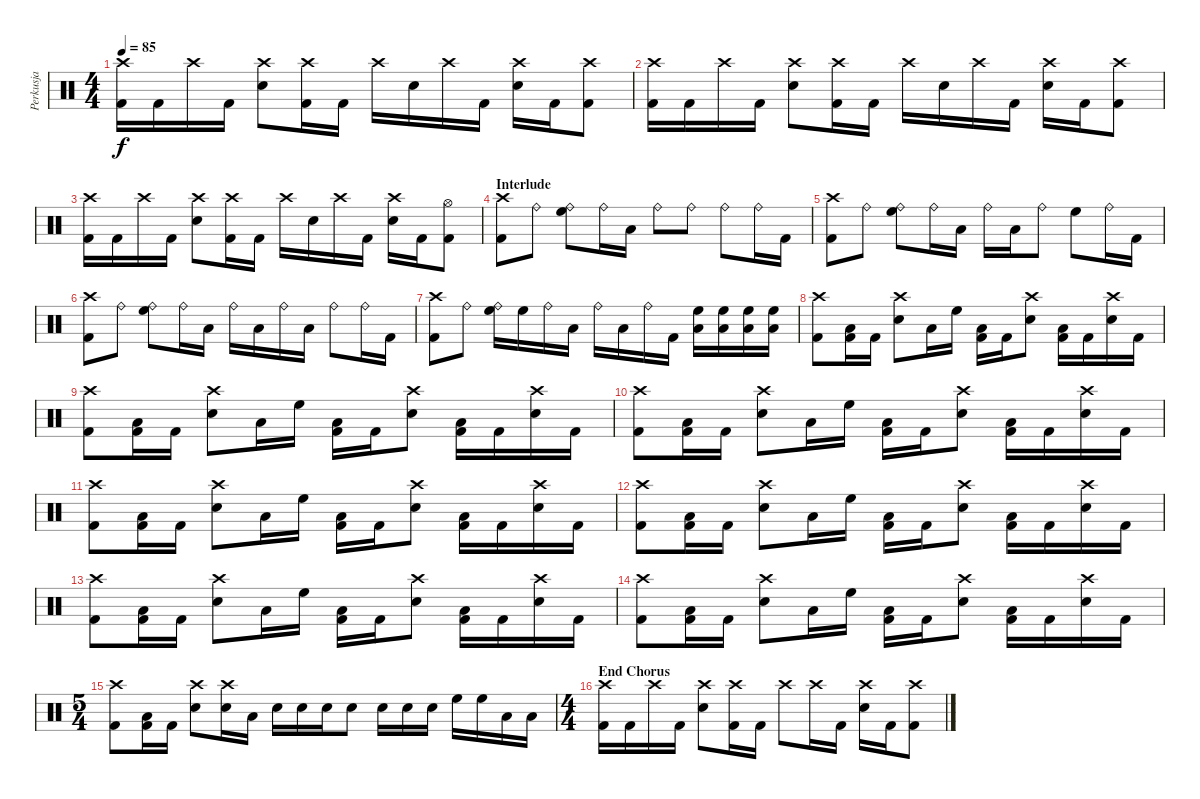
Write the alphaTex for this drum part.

\track ("Perkusja" "Perkusja") {instrument percussion}
\staff {score}
\articulation defaults
\ts (4 4)
\tempo 85
\clef neutral
\ks c
("Crash high (hit)" "Kick (hit) 2").16{dy f} "Kick (hit) 2".16 "Crash high (hit)".16 "Kick (hit) 2".16 ("Crash high (hit)" "Snare (hit) 2").8 ("Crash high (hit)" "Kick (hit) 2").16 "Kick (hit) 2".16 "Crash high (hit)".16 "Snare (hit) 2".16 "Crash high (hit)".16 "Kick (hit) 2".16 ("Crash high (hit)" "Snare (hit) 2").16 "Kick (hit) 2".16 ("Crash high (hit)" "Kick (hit) 2").8 |
("Crash high (hit)" "Kick (hit) 2").16 "Kick (hit) 2".16 "Crash high (hit)".16 "Kick (hit) 2".16 ("Crash high (hit)" "Snare (hit) 2").8 ("Crash high (hit)" "Kick (hit) 2").16 "Kick (hit) 2".16 "Crash high (hit)".16 "Snare (hit) 2".16 "Crash high (hit)".16 "Kick (hit) 2".16 ("Crash high (hit)" "Snare (hit) 2").16 "Kick (hit) 2".16 ("Crash high (hit)" "Kick (hit) 2").8 |
("Crash high (hit)" "Kick (hit) 2").16 "Kick (hit) 2".16 "Crash high (hit)".16 "Kick (hit) 2".16 ("Crash high (hit)" "Snare (hit) 2").8 ("Crash high (hit)" "Kick (hit) 2").16 "Kick (hit) 2".16 "Crash high (hit)".16 "Snare (hit) 2".16 "Crash high (hit)".16 "Kick (hit) 2".16 ("Crash high (hit)" "Snare (hit) 2").16 "Kick (hit) 2".16 ("Hi-Hat (open)" "Kick (hit) 2").8 |
\section ("" "Interlude")
("Crash high (hit)" "Kick (hit) 2").8 "Ride (bell)".8 ("Ride (bell)" "High Floor Tom (hit)").8 "Ride (bell)".16 "Low Floor Tom (hit)".16 "Ride (bell)".8 "Ride (bell)".8 "Ride (bell)".8 "Ride (bell)".16 "Kick (hit) 2".16 |
("Crash high (hit)" "Kick (hit) 2").8 "Ride (bell)".8 ("Ride (bell)" "High Floor Tom (hit)").8 "Ride (bell)".16 "Low Floor Tom (hit)".16 "Ride (bell)".16 "Low Floor Tom (hit)".16 "Ride (bell)".8 "High Floor Tom (hit)".8 "Ride (bell)".16 "Kick (hit) 2".16 |
("Crash high (hit)" "Kick (hit) 2").8 "Ride (bell)".8 ("Ride (bell)" "High Floor Tom (hit)").8 "Ride (bell)".16 "Low Floor Tom (hit)".16 "Ride (bell)".16 "Low Floor Tom (hit)".16 "Ride (bell)".16 "Low Floor Tom (hit)".16 "Ride (bell)".8 "Ride (bell)".16 "Kick (hit) 2".16 |
("Crash high (hit)" "Kick (hit) 2").8 "Ride (bell)".8 ("Ride (bell)" "High Floor Tom (hit)").16 "High Floor Tom (hit)".16 "Ride (bell)".16 "Low Floor Tom (hit)".16 "Ride (bell)".16 "Low Floor Tom (hit)".16 "Ride (bell)".16 "Kick (hit) 2".16 ("High Floor Tom (hit)" "Low Floor Tom (hit)").16 ("High Floor Tom (hit)" "Low Floor Tom (hit)").16 ("High Floor Tom (hit)" "Low Floor Tom (hit)").16 ("High Floor Tom (hit)" "Low Floor Tom (hit)").16 |
("Crash high (hit)" "Kick (hit) 2").8 ("Low Floor Tom (hit)" "Kick (hit) 2").16 "Kick (hit) 2".16 ("Crash high (hit)" "Snare (hit) 2").8 "Low Floor Tom (hit)".16 "High Floor Tom (hit)".16 ("Low Floor Tom (hit)" "Kick (hit) 2").16 "Kick (hit) 2".16 ("Crash high (hit)" "Snare (hit) 2").8 ("Low Floor Tom (hit)" "Kick (hit) 2").16 "Kick (hit) 2".16 ("Crash high (hit)" "Snare (hit) 2").16 "Kick (hit) 2".16 |
("Crash high (hit)" "Kick (hit) 2").8 ("Low Floor Tom (hit)" "Kick (hit) 2").16 "Kick (hit) 2".16 ("Crash high (hit)" "Snare (hit) 2").8 "Low Floor Tom (hit)".16 "High Floor Tom (hit)".16 ("Low Floor Tom (hit)" "Kick (hit) 2").16 "Kick (hit) 2".16 ("Crash high (hit)" "Snare (hit) 2").8 ("Low Floor Tom (hit)" "Kick (hit) 2").16 "Kick (hit) 2".16 ("Crash high (hit)" "Snare (hit) 2").16 "Kick (hit) 2".16 |
("Crash high (hit)" "Kick (hit) 2").8 ("Low Floor Tom (hit)" "Kick (hit) 2").16 "Kick (hit) 2".16 ("Crash high (hit)" "Snare (hit) 2").8 "Low Floor Tom (hit)".16 "High Floor Tom (hit)".16 ("Low Floor Tom (hit)" "Kick (hit) 2").16 "Kick (hit) 2".16 ("Crash high (hit)" "Snare (hit) 2").8 ("Low Floor Tom (hit)" "Kick (hit) 2").16 "Kick (hit) 2".16 ("Crash high (hit)" "Snare (hit) 2").16 "Kick (hit) 2".16 |
("Crash high (hit)" "Kick (hit) 2").8 ("Low Floor Tom (hit)" "Kick (hit) 2").16 "Kick (hit) 2".16 ("Crash high (hit)" "Snare (hit) 2").8 "Low Floor Tom (hit)".16 "High Floor Tom (hit)".16 ("Low Floor Tom (hit)" "Kick (hit) 2").16 "Kick (hit) 2".16 ("Crash high (hit)" "Snare (hit) 2").8 ("Low Floor Tom (hit)" "Kick (hit) 2").16 "Kick (hit) 2".16 ("Crash high (hit)" "Snare (hit) 2").16 "Kick (hit) 2".16 |
("Crash high (hit)" "Kick (hit) 2").8 ("Low Floor Tom (hit)" "Kick (hit) 2").16 "Kick (hit) 2".16 ("Crash high (hit)" "Snare (hit) 2").8 "Low Floor Tom (hit)".16 "High Floor Tom (hit)".16 ("Low Floor Tom (hit)" "Kick (hit) 2").16 "Kick (hit) 2".16 ("Crash high (hit)" "Snare (hit) 2").8 ("Low Floor Tom (hit)" "Kick (hit) 2").16 "Kick (hit) 2".16 ("Crash high (hit)" "Snare (hit) 2").16 "Kick (hit) 2".16 |
("Crash high (hit)" "Kick (hit) 2").8 ("Low Floor Tom (hit)" "Kick (hit) 2").16 "Kick (hit) 2".16 ("Crash high (hit)" "Snare (hit) 2").8 "Low Floor Tom (hit)".16 "High Floor Tom (hit)".16 ("Low Floor Tom (hit)" "Kick (hit) 2").16 "Kick (hit) 2".16 ("Crash high (hit)" "Snare (hit) 2").8 ("Low Floor Tom (hit)" "Kick (hit) 2").16 "Kick (hit) 2".16 ("Crash high (hit)" "Snare (hit) 2").16 "Kick (hit) 2".16 |
("Crash high (hit)" "Kick (hit) 2").8 ("Low Floor Tom (hit)" "Kick (hit) 2").16 "Kick (hit) 2".16 ("Crash high (hit)" "Snare (hit) 2").8 "Low Floor Tom (hit)".16 "High Floor Tom (hit)".16 ("Low Floor Tom (hit)" "Kick (hit) 2").16 "Kick (hit) 2".16 ("Crash high (hit)" "Snare (hit) 2").8 ("Low Floor Tom (hit)" "Kick (hit) 2").16 "Kick (hit) 2".16 ("Crash high (hit)" "Snare (hit) 2").16 "Kick (hit) 2".16 |
\ts (5 4)
("Crash high (hit)" "Kick (hit) 2").8 ("Low Floor Tom (hit)" "Kick (hit) 2").16 "Kick (hit) 2".16 ("Crash high (hit)" "Snare (hit) 2").8 ("Crash high (hit)" "Snare (hit) 2").16 "Low Floor Tom (hit)".16 "Snare (hit) 2".16 "Snare (hit) 2".16 "Snare (hit) 2".16 "Snare (hit) 2".8 "Snare (hit) 2".16 "Snare (hit) 2".16 "Snare (hit) 2".16 "High Floor Tom (hit)".16 "High Floor Tom (hit)".16 "Low Floor Tom (hit)".16 "Low Floor Tom (hit)".16 |
\ts (4 4)
\section ("" "End Chorus")
("Crash high (hit)" "Kick (hit) 2").16 "Kick (hit) 2".16 "Crash high (hit)".16 "Kick (hit) 2".16 ("Crash high (hit)" "Snare (hit) 2").8 ("Crash high (hit)" "Kick (hit) 2").16 "Kick (hit) 2".16 "Crash high (hit)".8 "Crash high (hit)".16 "Kick (hit) 2".16 ("Crash high (hit)" "Snare (hit) 2").16 "Kick (hit) 2".16 ("Crash high (hit)" "Kick (hit) 2").8
